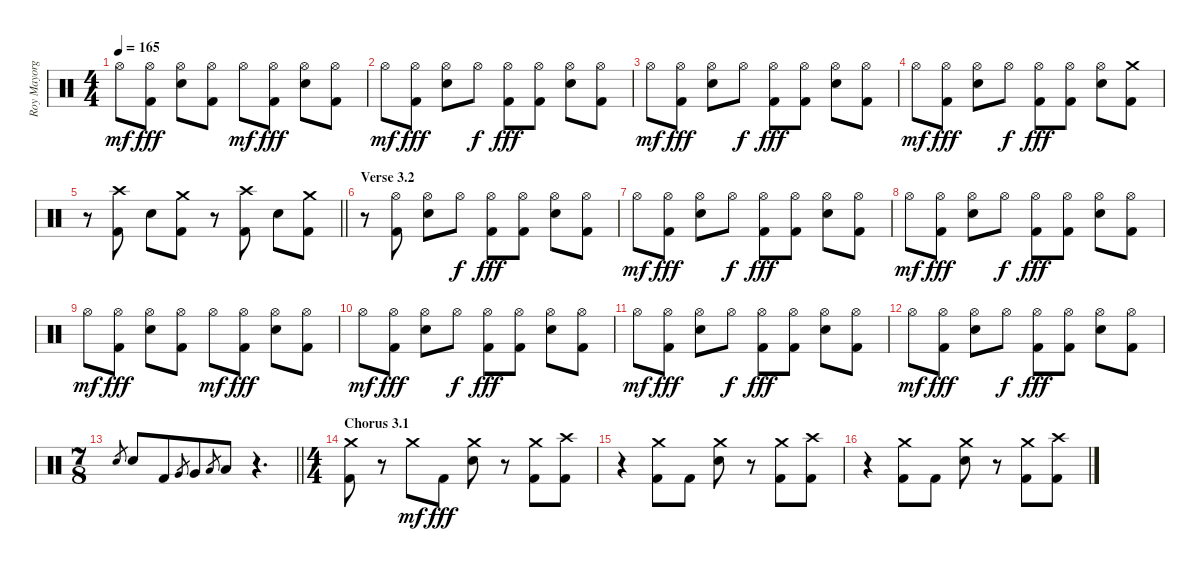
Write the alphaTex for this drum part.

\track ("Roy Mayorga" "Roy Mayorg") {instrument percussion}
\staff {score}
\articulation defaults
\ts (4 4)
\tempo 165
\clef neutral
\ks c "Hi-Hat (open)".8{dy mf}
("Hi-Hat (open)" "Kick (hit) 2").8{dy fff} ("Hi-Hat (open)" "Electric Snare (hit)").8 ("Hi-Hat (open)" "Kick (hit) 2").8 "Hi-Hat (open)".8{dy mf} ("Hi-Hat (open)" "Kick (hit) 2").8{dy fff} ("Hi-Hat (open)" "Electric Snare (hit)").8 ("Hi-Hat (open)" "Kick (hit) 2").8 |
"Hi-Hat (open)".8{dy mf} ("Hi-Hat (open)" "Kick (hit) 2").8{dy fff} ("Hi-Hat (open)" "Electric Snare (hit)").8 "Hi-Hat (open)".8{dy f} ("Hi-Hat (open)" "Kick (hit) 2").8{dy fff} ("Hi-Hat (open)" "Kick (hit) 2").8 ("Hi-Hat (open)" "Electric Snare (hit)").8 ("Hi-Hat (open)" "Kick (hit) 2").8 |
"Hi-Hat (open)".8{dy mf} ("Hi-Hat (open)" "Kick (hit) 2").8{dy fff} ("Hi-Hat (open)" "Electric Snare (hit)").8 "Hi-Hat (open)".8{dy f} ("Hi-Hat (open)" "Kick (hit) 2").8{dy fff} ("Hi-Hat (open)" "Kick (hit) 2").8 ("Hi-Hat (open)" "Electric Snare (hit)").8 ("Hi-Hat (open)" "Kick (hit) 2").8 |
"Hi-Hat (open)".8{dy mf} ("Hi-Hat (open)" "Kick (hit) 2").8{dy fff} ("Hi-Hat (open)" "Electric Snare (hit)").8 "Hi-Hat (open)".8{dy f} ("Hi-Hat (open)" "Kick (hit) 2").8{dy fff} ("Hi-Hat (open)" "Kick (hit) 2").8 ("Hi-Hat (open)" "Electric Snare (hit)").8 ("Crash medium (hit)" "Kick (hit) 2").8 |
\barLineRight lightlight
r.8 ("Crash high (hit)" "Kick (hit) 2").8 "Electric Snare (hit)".8 ("Crash medium (hit)" "Kick (hit) 2").8 r.8 ("Crash high (hit)" "Kick (hit) 2").8 "Electric Snare (hit)".8 ("Crash medium (hit)" "Kick (hit) 2").8 |
\section ("" "Verse 3.2")
r.8 ("Hi-Hat (open)" "Kick (hit) 2").8 ("Hi-Hat (open)" "Electric Snare (hit)").8 "Hi-Hat (open)".8{dy f} ("Hi-Hat (open)" "Kick (hit) 2").8{dy fff} ("Hi-Hat (open)" "Kick (hit) 2").8 ("Hi-Hat (open)" "Electric Snare (hit)").8 ("Hi-Hat (open)" "Kick (hit) 2").8 |
"Hi-Hat (open)".8{dy mf} ("Hi-Hat (open)" "Kick (hit) 2").8{dy fff} ("Hi-Hat (open)" "Electric Snare (hit)").8 "Hi-Hat (open)".8{dy f} ("Hi-Hat (open)" "Kick (hit) 2").8{dy fff} ("Hi-Hat (open)" "Kick (hit) 2").8 ("Hi-Hat (open)" "Electric Snare (hit)").8 ("Hi-Hat (open)" "Kick (hit) 2").8 |
"Hi-Hat (open)".8{dy mf} ("Hi-Hat (open)" "Kick (hit) 2").8{dy fff} ("Hi-Hat (open)" "Electric Snare (hit)").8 "Hi-Hat (open)".8{dy f} ("Hi-Hat (open)" "Kick (hit) 2").8{dy fff} ("Hi-Hat (open)" "Kick (hit) 2").8 ("Hi-Hat (open)" "Electric Snare (hit)").8 ("Hi-Hat (open)" "Kick (hit) 2").8 |
"Hi-Hat (open)".8{dy mf} ("Hi-Hat (open)" "Kick (hit) 2").8{dy fff} ("Hi-Hat (open)" "Electric Snare (hit)").8 ("Hi-Hat (open)" "Kick (hit) 2").8 "Hi-Hat (open)".8{dy mf} ("Hi-Hat (open)" "Kick (hit) 2").8{dy fff} ("Hi-Hat (open)" "Electric Snare (hit)").8 ("Hi-Hat (open)" "Kick (hit) 2").8 |
"Hi-Hat (open)".8{dy mf} ("Hi-Hat (open)" "Kick (hit) 2").8{dy fff} ("Hi-Hat (open)" "Electric Snare (hit)").8 "Hi-Hat (open)".8{dy f} ("Hi-Hat (open)" "Kick (hit) 2").8{dy fff} ("Hi-Hat (open)" "Kick (hit) 2").8 ("Hi-Hat (open)" "Electric Snare (hit)").8 ("Hi-Hat (open)" "Kick (hit) 2").8 |
"Hi-Hat (open)".8{dy mf} ("Hi-Hat (open)" "Kick (hit) 2").8{dy fff} ("Hi-Hat (open)" "Electric Snare (hit)").8 "Hi-Hat (open)".8{dy f} ("Hi-Hat (open)" "Kick (hit) 2").8{dy fff} ("Hi-Hat (open)" "Kick (hit) 2").8 ("Hi-Hat (open)" "Electric Snare (hit)").8 ("Hi-Hat (open)" "Kick (hit) 2").8 |
"Hi-Hat (open)".8{dy mf} ("Hi-Hat (open)" "Kick (hit) 2").8{dy fff} ("Hi-Hat (open)" "Electric Snare (hit)").8 "Hi-Hat (open)".8{dy f} ("Hi-Hat (open)" "Kick (hit) 2").8{dy fff} ("Hi-Hat (open)" "Kick (hit) 2").8 ("Hi-Hat (open)" "Electric Snare (hit)").8 ("Hi-Hat (open)" "Kick (hit) 2").8 |
\ts (7 8)
\barLineRight lightlight "Electric Snare (hit)".8{gr} "Electric Snare (hit)".8 "Kick (hit) 2".8 "Very Low Tom (hit)".8{gr} "Very Low Tom (hit)".8 "Low Floor Tom (hit)".8{gr} "Low Floor Tom (hit)".8
r.4{d} |
\ts (4 4)
\section ("" "Chorus 3.1")
("Crash medium (hit)" "Kick (hit) 2").8 r.8 "Crash medium (hit)".8{dy mf} "Kick (hit) 2".8{dy fff} ("Crash medium (hit)" "Electric Snare (hit)").8 r.8 ("Crash medium (hit)" "Kick (hit) 2").8 ("Crash high (hit)" "Kick (hit) 2").8 |
r.4 ("Crash medium (hit)" "Kick (hit) 2").8 "Kick (hit) 2".8 ("Crash medium (hit)" "Electric Snare (hit)").8 r.8 ("Crash medium (hit)" "Kick (hit) 2").8 ("Crash high (hit)" "Kick (hit) 2").8 |
r.4 ("Crash medium (hit)" "Kick (hit) 2").8 "Kick (hit) 2".8 ("Crash medium (hit)" "Electric Snare (hit)").8 r.8 ("Crash medium (hit)" "Kick (hit) 2").8 ("Crash high (hit)" "Kick (hit) 2").8
